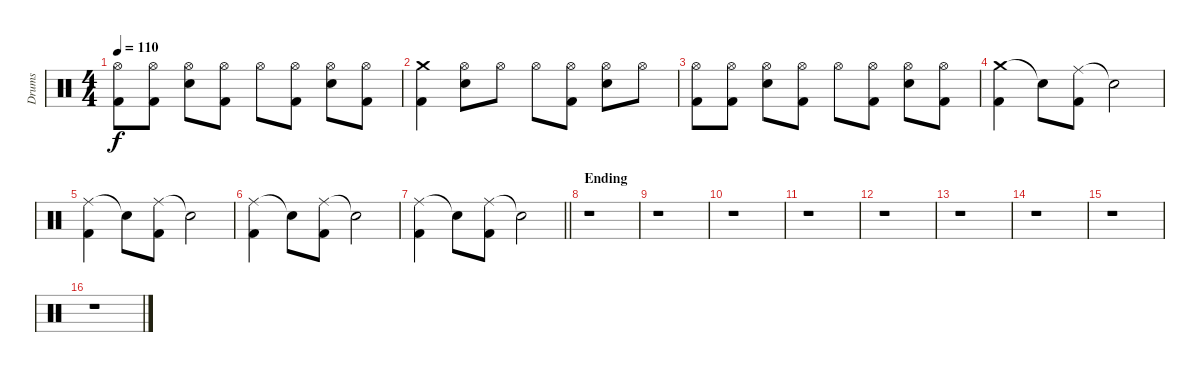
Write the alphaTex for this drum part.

\track ("Drums" "Drums") {instrument percussion}
\staff {score}
\articulation defaults
\ts (4 4)
\tempo 110
\clef neutral
\ks c
("Hi-Hat (open)" "Kick (hit) 2").8{dy f} ("Hi-Hat (open)" "Kick (hit) 2").8 ("Hi-Hat (open)" "Electric Snare (hit)").8 ("Hi-Hat (open)" "Kick (hit) 2").8 "Hi-Hat (open)".8 ("Hi-Hat (open)" "Kick (hit) 2").8 ("Hi-Hat (open)" "Electric Snare (hit)").8 ("Hi-Hat (open)" "Kick (hit) 2").8 |
("Crash medium (hit)" "Kick (hit) 2").4 ("Hi-Hat (open)" "Electric Snare (hit)").8 "Hi-Hat (open)".8 "Hi-Hat (open)".8 ("Hi-Hat (open)" "Kick (hit) 2").8 ("Hi-Hat (open)" "Electric Snare (hit)").8 "Hi-Hat (open)".8 |
("Hi-Hat (open)" "Kick (hit) 2").8 ("Hi-Hat (open)" "Kick (hit) 2").8 ("Hi-Hat (open)" "Electric Snare (hit)").8 ("Hi-Hat (open)" "Kick (hit) 2").8 "Hi-Hat (open)".8 ("Hi-Hat (open)" "Kick (hit) 2").8 ("Hi-Hat (open)" "Electric Snare (hit)").8 ("Hi-Hat (open)" "Kick (hit) 2").8 |
("Crash medium (hit)" "Kick (hit) 2").4 "Snare (hit)"{t}.8 ("Ride (middle)" "Kick (hit) 2").8 "Snare (hit)"{t}.2 |
("Ride (middle)" "Kick (hit) 2").4 "Snare (hit)"{t}.8 ("Ride (middle)" "Kick (hit) 2").8 "Snare (hit)"{t}.2 |
("Ride (middle)" "Kick (hit) 2").4 "Snare (hit)"{t}.8 ("Ride (middle)" "Kick (hit) 2").8 "Snare (hit)"{t}.2 |
\barLineRight lightlight
("Ride (middle)" "Kick (hit) 2").4 "Snare (hit)"{t}.8 ("Ride (middle)" "Kick (hit) 2").8 "Snare (hit)"{t}.2 |
\section ("" "Ending")
r.1 |
r.1 |
r.1 |
r.1 |
r.1 |
r.1 |
r.1 |
r.1 |
r.1
